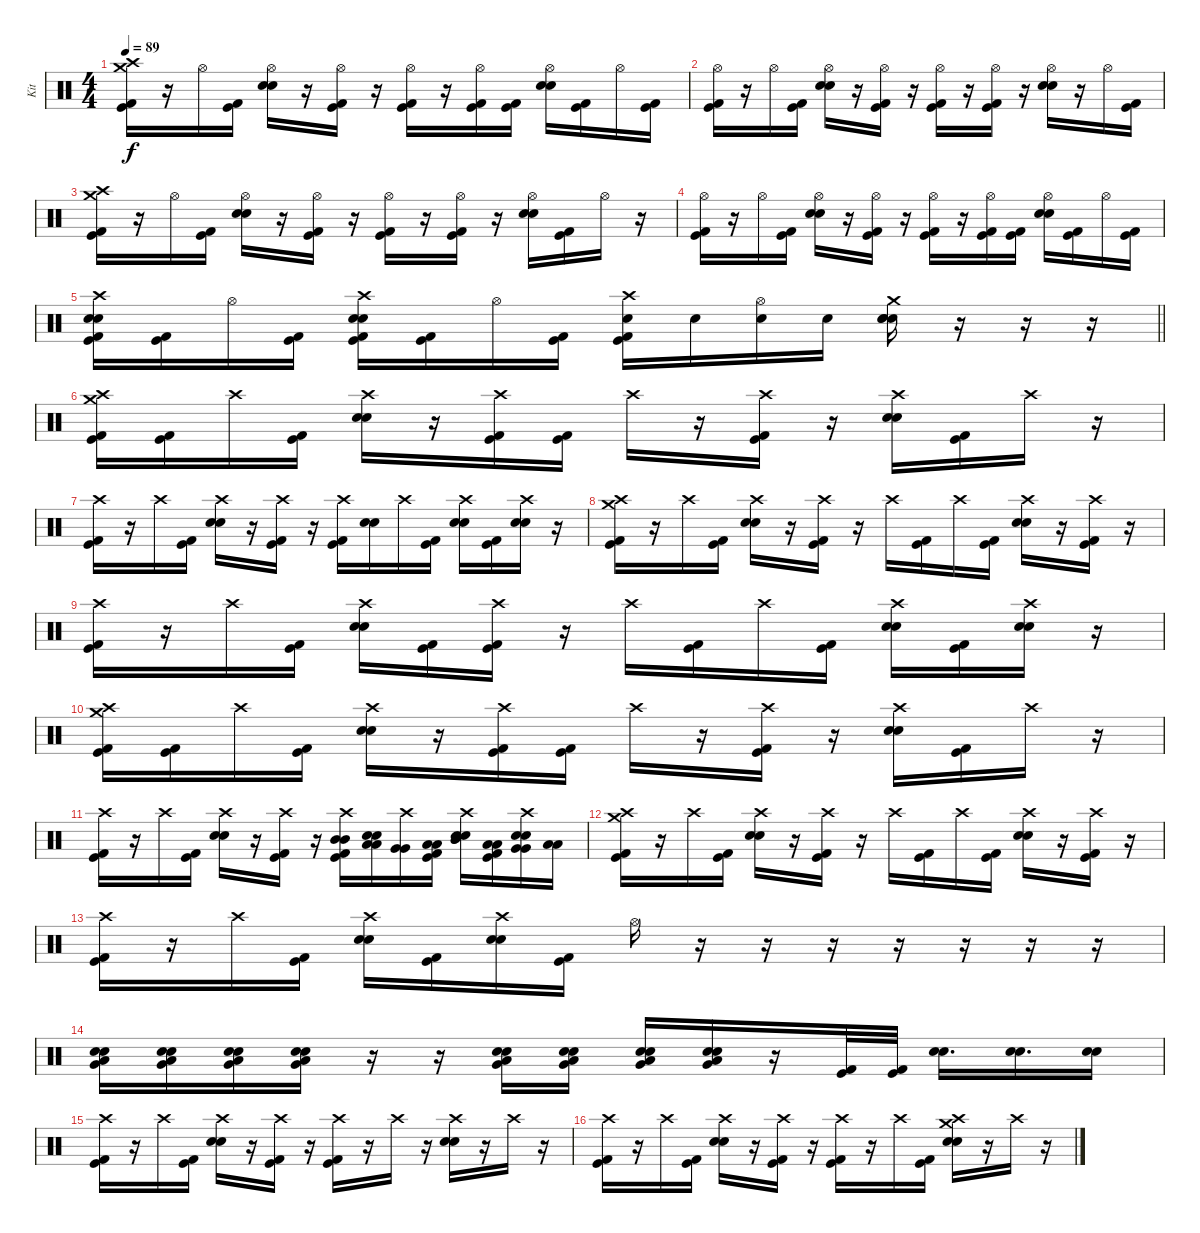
\track ("Kit" "Kit") {instrument percussion}
\staff {score}
\articulation defaults
\ts (4 4)
\tempo 89
\clef neutral
\ks c
("Crash high (hit)" "Crash medium (hit)" "Kick (hit) 2" "Kick (hit)").16{dy f} r.16 "Hi-Hat (open)".16 ("Kick (hit) 2" "Kick (hit)").16 ("Hi-Hat (open)" "Electric Snare (hit)" "Snare (hit) 2").16 r.16 ("Hi-Hat (open)" "Kick (hit) 2" "Kick (hit)").16 r.16 ("Hi-Hat (open)" "Kick (hit) 2" "Kick (hit)").16 r.16 ("Hi-Hat (open)" "Kick (hit) 2" "Kick (hit)").16 ("Kick (hit) 2" "Kick (hit)").16 ("Hi-Hat (open)" "Electric Snare (hit)" "Snare (hit) 2").16 ("Kick (hit) 2" "Kick (hit)").16 "Hi-Hat (open)".16 ("Kick (hit) 2" "Kick (hit)").16 |
("Hi-Hat (open)" "Kick (hit) 2" "Kick (hit)").16 r.16 "Hi-Hat (open)".16 ("Kick (hit) 2" "Kick (hit)").16 ("Hi-Hat (open)" "Electric Snare (hit)" "Snare (hit) 2").16 r.16 ("Hi-Hat (open)" "Kick (hit) 2" "Kick (hit)").16 r.16 ("Hi-Hat (open)" "Kick (hit) 2" "Kick (hit)").16 r.16 ("Hi-Hat (open)" "Kick (hit) 2" "Kick (hit)").16 r.16 ("Hi-Hat (open)" "Electric Snare (hit)" "Snare (hit) 2").16 r.16 "Hi-Hat (open)".16 ("Kick (hit) 2" "Kick (hit)").16 |
("Crash high (hit)" "Crash medium (hit)" "Kick (hit) 2" "Kick (hit)").16 r.16 "Hi-Hat (open)".16 ("Kick (hit) 2" "Kick (hit)").16 ("Hi-Hat (open)" "Electric Snare (hit)" "Snare (hit) 2").16 r.16 ("Hi-Hat (open)" "Kick (hit) 2" "Kick (hit)").16 r.16 ("Hi-Hat (open)" "Kick (hit) 2" "Kick (hit)").16 r.16 ("Hi-Hat (open)" "Kick (hit) 2" "Kick (hit)").16 r.16 ("Hi-Hat (open)" "Electric Snare (hit)" "Snare (hit) 2").16 ("Kick (hit) 2" "Kick (hit)").16 "Hi-Hat (open)".16 r.16 |
("Hi-Hat (open)" "Kick (hit) 2" "Kick (hit)").16 r.16 "Hi-Hat (open)".16 ("Kick (hit) 2" "Kick (hit)").16 ("Hi-Hat (open)" "Electric Snare (hit)" "Snare (hit) 2").16 r.16 ("Hi-Hat (open)" "Kick (hit) 2" "Kick (hit)").16 r.16 ("Hi-Hat (open)" "Kick (hit) 2" "Kick (hit)").16 r.16 ("Hi-Hat (open)" "Kick (hit) 2" "Kick (hit)").16 ("Kick (hit) 2" "Kick (hit)").16 ("Hi-Hat (open)" "Electric Snare (hit)" "Snare (hit) 2").16 ("Kick (hit) 2" "Kick (hit)").16 "Hi-Hat (open)".16 ("Kick (hit) 2" "Kick (hit)").16 |
\barLineRight lightlight
("Crash high (hit)" "Snare (hit) 2" "Electric Snare (hit)" "Kick (hit) 2" "Kick (hit)").16 ("Kick (hit) 2" "Kick (hit)").16 "Hi-Hat (open)".16 ("Kick (hit) 2" "Kick (hit)").16 ("Crash high (hit)" "Snare (hit) 2" "Electric Snare (hit)" "Kick (hit) 2" "Kick (hit)").16 ("Kick (hit) 2" "Kick (hit)").16 "Hi-Hat (open)".16 ("Kick (hit) 2" "Kick (hit)").16 ("Crash high (hit)" "Electric Snare (hit)" "Kick (hit) 2" "Kick (hit)").16 "Electric Snare (hit)".16 ("Hi-Hat (open)" "Electric Snare (hit)").16 "Electric Snare (hit)".16 ("Crash medium (hit)" "Snare (hit) 2" "Electric Snare (hit)" "Snare (hit) 2").16 r.16 r.16 r.16 |
("Crash high (hit)" "Crash medium (hit)" "Kick (hit) 2" "Kick (hit)").16 ("Kick (hit) 2" "Kick (hit)").16 "Crash high (hit)".16 ("Kick (hit) 2" "Kick (hit)").16 ("Crash high (hit)" "Electric Snare (hit)" "Snare (hit) 2").16 r.16 ("Crash high (hit)" "Kick (hit) 2" "Kick (hit)").16 ("Kick (hit) 2" "Kick (hit)").16 "Crash high (hit)".16 r.16 ("Crash high (hit)" "Kick (hit) 2" "Kick (hit)").16 r.16 ("Crash high (hit)" "Snare (hit) 2" "Electric Snare (hit)").16 ("Kick (hit) 2" "Kick (hit)").16 "Crash high (hit)".16 r.16 |
("Crash high (hit)" "Kick (hit) 2" "Kick (hit)").16 r.16 "Crash high (hit)".16 ("Kick (hit) 2" "Kick (hit)").16 ("Crash high (hit)" "Electric Snare (hit)" "Snare (hit) 2").16 r.16 ("Crash high (hit)" "Kick (hit) 2" "Kick (hit)").16 r.16 ("Crash high (hit)" "Kick (hit) 2" "Kick (hit)").16 ("Electric Snare (hit)" "Snare (hit) 2").16 "Crash high (hit)".16 ("Kick (hit) 2" "Kick (hit)").16 ("Crash high (hit)" "Snare (hit) 2" "Electric Snare (hit)").16 ("Kick (hit) 2" "Kick (hit)").16 ("Crash high (hit)" "Electric Snare (hit)" "Snare (hit) 2").16 r.16 |
("Crash high (hit)" "Crash medium (hit)" "Kick (hit) 2" "Kick (hit)").16 r.16 "Crash high (hit)".16 ("Kick (hit) 2" "Kick (hit)").16 ("Crash high (hit)" "Electric Snare (hit)" "Snare (hit) 2").16 r.16 ("Crash high (hit)" "Kick (hit) 2" "Kick (hit)").16 r.16 "Crash high (hit)".16 ("Kick (hit) 2" "Kick (hit)").16 "Crash high (hit)".16 ("Kick (hit) 2" "Kick (hit)").16 ("Crash high (hit)" "Snare (hit) 2" "Electric Snare (hit)").16 r.16 ("Crash high (hit)" "Kick (hit) 2" "Kick (hit)").16 r.16 |
("Crash high (hit)" "Kick (hit) 2" "Kick (hit)").16 r.16 "Crash high (hit)".16 ("Kick (hit) 2" "Kick (hit)").16 ("Crash high (hit)" "Electric Snare (hit)" "Snare (hit) 2").16 ("Kick (hit) 2" "Kick (hit)").16 ("Crash high (hit)" "Kick (hit) 2" "Kick (hit)").16 r.16 "Crash high (hit)".16 ("Kick (hit) 2" "Kick (hit)").16 "Crash high (hit)".16 ("Kick (hit) 2" "Kick (hit)").16 ("Crash high (hit)" "Snare (hit) 2" "Electric Snare (hit)").16 ("Kick (hit) 2" "Kick (hit)").16 ("Crash high (hit)" "Snare (hit) 2" "Electric Snare (hit)").16 r.16 |
("Crash high (hit)" "Crash medium (hit)" "Kick (hit) 2" "Kick (hit)").16 ("Kick (hit) 2" "Kick (hit)").16 "Crash high (hit)".16 ("Kick (hit) 2" "Kick (hit)").16 ("Crash high (hit)" "Electric Snare (hit)" "Snare (hit) 2").16 r.16 ("Crash high (hit)" "Kick (hit) 2" "Kick (hit)").16 ("Kick (hit) 2" "Kick (hit)").16 "Crash high (hit)".16 r.16 ("Crash high (hit)" "Kick (hit) 2" "Kick (hit)").16 r.16 ("Crash high (hit)" "Snare (hit) 2" "Electric Snare (hit)").16 ("Kick (hit) 2" "Kick (hit)").16 "Crash high (hit)".16 r.16 |
("Crash high (hit)" "Kick (hit) 2" "Kick (hit)").16 r.16 "Crash high (hit)".16 ("Kick (hit) 2" "Kick (hit)").16 ("Crash high (hit)" "Electric Snare (hit)" "Snare (hit) 2").16 r.16 ("Crash high (hit)" "Kick (hit) 2" "Kick (hit)").16 r.16 ("Crash high (hit)" "Mid Tom (hit)" "Mid Tom (hit)" "Kick (hit) 2" "Kick (hit)").16 ("Low Tom (hit)" "Low Tom (hit)" "Electric Snare (hit)" "Snare (hit) 2").16 ("Crash high (hit)" "Very Low Tom (hit)" "Very Low Tom (hit)").16 ("Low Floor Tom (hit)" "Low Floor Tom (hit)" "Kick (hit) 2" "Kick (hit)").16 ("Crash high (hit)" "Mid Tom (hit)" "Mid Tom (hit)" "Snare (hit) 2" "Electric Snare (hit)").16 ("Low Tom (hit)" "Low Tom (hit)" "Kick (hit) 2" "Kick (hit)").16 ("Crash high (hit)" "Very Low Tom (hit)" "Very Low Tom (hit)" "Electric Snare (hit)" "Snare (hit) 2").16 ("Low Floor Tom (hit)" "Low Floor Tom (hit)").16 |
("Crash high (hit)" "Crash medium (hit)" "Kick (hit) 2" "Kick (hit)").16 r.16 "Crash high (hit)".16 ("Kick (hit) 2" "Kick (hit)").16 ("Crash high (hit)" "Electric Snare (hit)" "Snare (hit) 2").16 r.16 ("Crash high (hit)" "Kick (hit) 2" "Kick (hit)").16 r.16 "Crash high (hit)".16 ("Kick (hit) 2" "Kick (hit)").16 "Crash high (hit)".16 ("Kick (hit) 2" "Kick (hit)").16 ("Crash high (hit)" "Snare (hit) 2" "Electric Snare (hit)").16 r.16 ("Crash high (hit)" "Kick (hit) 2" "Kick (hit)").16 r.16 |
("Crash high (hit)" "Kick (hit) 2" "Kick (hit)").16 r.16 "Crash high (hit)".16 ("Kick (hit) 2" "Kick (hit)").16 ("Crash high (hit)" "Electric Snare (hit)" "Snare (hit) 2").16 ("Kick (hit) 2" "Kick (hit)").16 ("Crash high (hit)" "Electric Snare (hit)" "Snare (hit) 2").16 ("Kick (hit) 2" "Kick (hit)").16 "Hi-Hat (open)".16 r.16 r.16 r.16 r.16 r.16 r.16 r.16 |
("Electric Snare (hit)" "Snare (hit) 2" "Very Low Tom (hit)" "Low Floor Tom (hit)").16 ("Electric Snare (hit)" "Snare (hit) 2" "Very Low Tom (hit)" "Low Floor Tom (hit)").16 ("Electric Snare (hit)" "Snare (hit) 2" "Very Low Tom (hit)" "Low Floor Tom (hit)").16 ("Electric Snare (hit)" "Snare (hit) 2" "Very Low Tom (hit)" "Low Floor Tom (hit)").16 r.16 r.16 ("Electric Snare (hit)" "Snare (hit) 2" "Very Low Tom (hit)" "Low Floor Tom (hit)").16 ("Electric Snare (hit)" "Snare (hit) 2" "Very Low Tom (hit)" "Low Floor Tom (hit)").16 ("Electric Snare (hit)" "Snare (hit) 2" "Very Low Tom (hit)" "Low Floor Tom (hit)").16 ("Electric Snare (hit)" "Snare (hit) 2" "Very Low Tom (hit)" "Low Floor Tom (hit)").16 r.16 ("Kick (hit) 2" "Kick (hit)").32 ("Kick (hit) 2" "Kick (hit)").32 ("Electric Snare (hit)" "Snare (hit) 2").16{d} ("Electric Snare (hit)" "Snare (hit) 2").16{d} ("Electric Snare (hit)" "Snare (hit) 2").16 |
("Crash high (hit)" "Kick (hit) 2" "Kick (hit)").16 r.16 "Crash high (hit)".16 ("Kick (hit) 2" "Kick (hit)").16 ("Crash high (hit)" "Electric Snare (hit)" "Snare (hit) 2").16 r.16 ("Crash high (hit)" "Kick (hit) 2" "Kick (hit)").16 r.16 ("Crash high (hit)" "Kick (hit) 2" "Kick (hit)").16 r.16 "Crash high (hit)".16 r.16 ("Crash high (hit)" "Electric Snare (hit)" "Snare (hit) 2").16 r.16 "Crash high (hit)".16 r.16 |
("Crash high (hit)" "Kick (hit) 2" "Kick (hit)").16 r.16 "Crash high (hit)".16 ("Kick (hit) 2" "Kick (hit)").16 ("Crash high (hit)" "Electric Snare (hit)" "Snare (hit) 2").16 r.16 ("Crash high (hit)" "Kick (hit) 2" "Kick (hit)").16 r.16 ("Crash high (hit)" "Kick (hit) 2" "Kick (hit)").16 r.16 "Crash high (hit)".16 ("Kick (hit) 2" "Kick (hit)").16 ("Crash high (hit)" "Crash medium (hit)" "Electric Snare (hit)" "Snare (hit) 2").16 r.16 "Crash high (hit)".16 r.16
